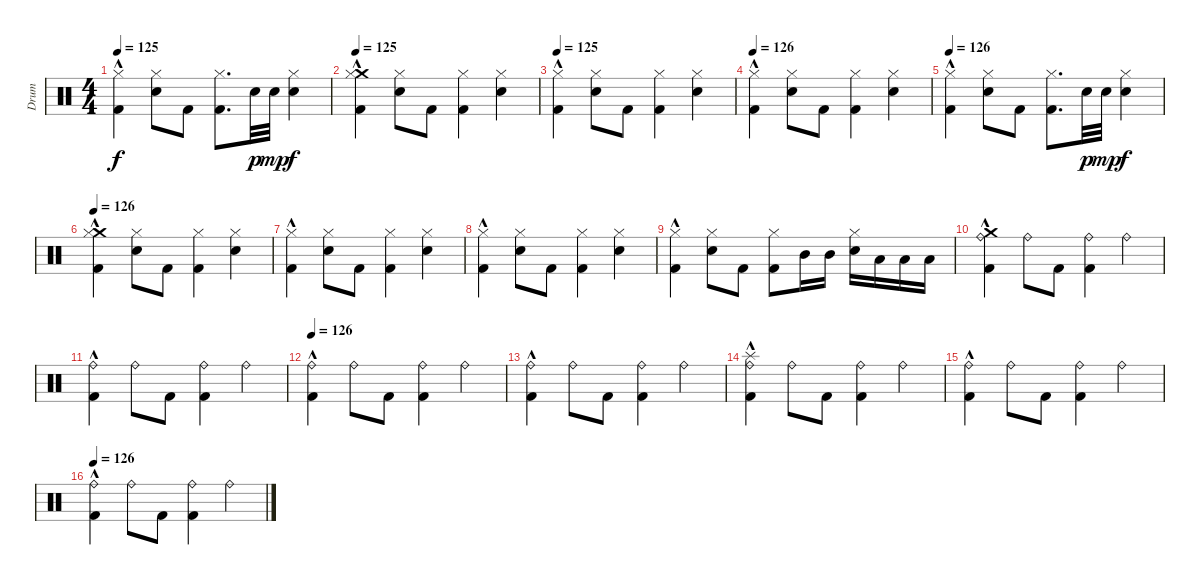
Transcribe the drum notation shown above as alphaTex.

\track ("Drum" "Drum") {instrument percussion}
\staff {score}
\articulation defaults
\ts (4 4)
\tempo 125
\clef neutral
\ks c
("Kick (hit) 2"{hac} "Hi-Hat (closed)").4{dy f} ("Electric Snare (hit)" "Hi-Hat (closed)").8 "Kick (hit) 2".8 ("Kick (hit) 2" "Hi-Hat (closed)").8{d} "Electric Snare (hit)".32{dy p} "Electric Snare (hit)".32{dy mp} ("Electric Snare (hit)" "Hi-Hat (closed)").4{dy f} |
\tempo 125
("Crash medium (hit)" "Kick (hit) 2"{hac} "Hi-Hat (closed)").4 ("Electric Snare (hit)" "Hi-Hat (closed)").8 "Kick (hit) 2".8 ("Kick (hit) 2" "Hi-Hat (closed)").4 ("Electric Snare (hit)" "Hi-Hat (closed)").4 |
\tempo 125
("Kick (hit) 2"{hac} "Hi-Hat (closed)").4 ("Hi-Hat (closed)" "Electric Snare (hit)").8 "Kick (hit) 2".8 ("Hi-Hat (closed)" "Kick (hit) 2").4 ("Electric Snare (hit)" "Hi-Hat (closed)").4 |
\tempo 126
("Kick (hit) 2"{hac} "Hi-Hat (closed)").4 ("Hi-Hat (closed)" "Electric Snare (hit)").8 "Kick (hit) 2".8 ("Kick (hit) 2" "Hi-Hat (closed)").4 ("Hi-Hat (closed)" "Electric Snare (hit)").4 |
\tempo 126
("Kick (hit) 2"{hac} "Hi-Hat (closed)").4 ("Hi-Hat (closed)" "Electric Snare (hit)").8 "Kick (hit) 2".8 ("Hi-Hat (closed)" "Kick (hit) 2").8{d} "Electric Snare (hit)".32{dy p} "Electric Snare (hit)".32{dy mp} ("Electric Snare (hit)" "Hi-Hat (closed)").4{dy f} |
\tempo 126
("Crash medium (hit)" "Hi-Hat (closed)" "Kick (hit) 2"{hac}).4 ("Electric Snare (hit)" "Hi-Hat (closed)").8 "Kick (hit) 2".8 ("Hi-Hat (closed)" "Kick (hit) 2").4 ("Hi-Hat (closed)" "Electric Snare (hit)").4 |
("Hi-Hat (closed)" "Kick (hit) 2"{hac}).4 ("Hi-Hat (closed)" "Electric Snare (hit)").8 "Kick (hit) 2".8 ("Hi-Hat (closed)" "Kick (hit) 2").4 ("Electric Snare (hit)" "Hi-Hat (closed)").4 |
("Kick (hit) 2"{hac} "Hi-Hat (closed)").4 ("Hi-Hat (closed)" "Electric Snare (hit)").8 "Kick (hit) 2".8 ("Kick (hit) 2" "Hi-Hat (closed)").4 ("Electric Snare (hit)" "Hi-Hat (closed)").4 |
("Kick (hit) 2"{hac} "Hi-Hat (closed)").4 ("Hi-Hat (closed)" "Electric Snare (hit)").8 "Kick (hit) 2".8 ("Kick (hit) 2" "Hi-Hat (closed)").8 "Mid Tom (hit)".16 "Mid Tom (hit)".16 ("Hi-Hat (closed)" "Electric Snare (hit)").16 "Low Floor Tom (hit)".16 "Low Floor Tom (hit)".16 "Low Floor Tom (hit)".16 |
("Crash medium (hit)" "Ride (bell)" "Kick (hit) 2"{hac}).4 "Ride (bell)".8 "Kick (hit) 2".8 ("Kick (hit) 2" "Ride (bell)").4 "Ride (bell)".4 |
("Ride (bell)" "Kick (hit) 2"{hac}).4 "Ride (bell)".8 "Kick (hit) 2".8 ("Ride (bell)" "Kick (hit) 2").4 "Ride (bell)".4 |
\tempo 126
("Ride (bell)" "Kick (hit) 2"{hac}).4 "Ride (bell)".8 "Kick (hit) 2".8 ("Ride (bell)" "Kick (hit) 2").4 "Ride (bell)".4 |
("Kick (hit) 2"{hac} "Ride (bell)").4 "Ride (bell)".8 "Kick (hit) 2".8 ("Ride (bell)" "Kick (hit) 2").4 "Ride (bell)".4 |
("Splash (hit)" "Kick (hit) 2"{hac} "Ride (bell)").4 "Ride (bell)".8 "Kick (hit) 2".8 ("Ride (bell)" "Kick (hit) 2").4 "Ride (bell)".4 |
("Kick (hit) 2"{hac} "Ride (bell)").4 "Ride (bell)".8 "Kick (hit) 2".8 ("Kick (hit) 2" "Ride (bell)").4 "Ride (bell)".4 |
\tempo 126
("Kick (hit) 2"{hac} "Ride (bell)").4 "Ride (bell)".8 "Kick (hit) 2".8 ("Kick (hit) 2" "Ride (bell)").4 "Ride (bell)".4
